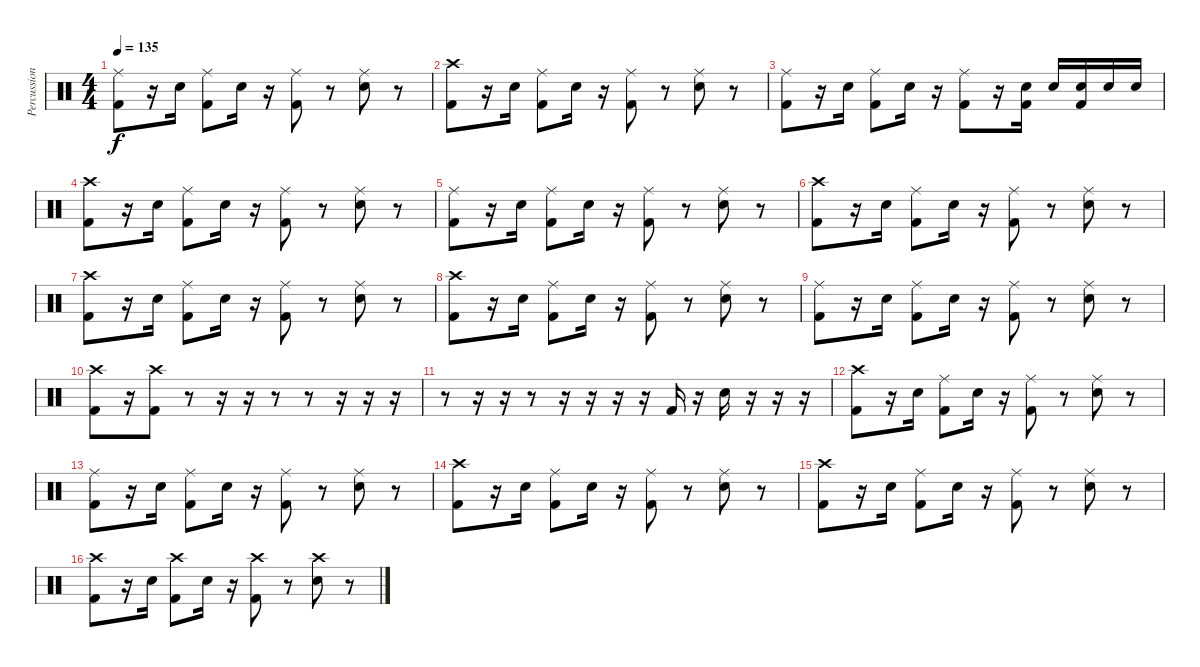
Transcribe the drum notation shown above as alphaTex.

\track ("Percussions" "Percussion") {instrument percussion}
\staff {score}
\articulation defaults
\ts (4 4)
\tempo 135
\clef neutral
\ks c
("Ride (middle)" "Kick (hit) 2").8{dy f} r.16 "Snare (hit) 2".16 ("Ride (middle)" "Kick (hit) 2").8 "Snare (hit) 2".16 r.16 ("Ride (middle)" "Kick (hit) 2").8 r.8 ("Ride (middle)" "Snare (hit) 2").8 r.8 |
("Crash high (hit)" "Kick (hit) 2").8 r.16 "Snare (hit) 2".16 ("Ride (middle)" "Kick (hit) 2").8 "Snare (hit) 2".16 r.16 ("Ride (middle)" "Kick (hit) 2").8 r.8 ("Ride (middle)" "Snare (hit) 2").8 r.8 |
("Ride (middle)" "Kick (hit) 2").8 r.16 "Snare (hit) 2".16 ("Ride (middle)" "Kick (hit) 2").8 "Snare (hit) 2".16 r.16 ("Ride (middle)" "Kick (hit) 2").8 r.16 ("Snare (hit) 2" "Kick (hit) 2").16 "Snare (hit) 2".16 ("Snare (hit) 2" "Kick (hit) 2").16 "Snare (hit) 2".16 "Snare (hit) 2".16 |
("Crash high (hit)" "Kick (hit) 2").8 r.16 "Snare (hit) 2".16 ("Ride (middle)" "Kick (hit) 2").8 "Snare (hit) 2".16 r.16 ("Ride (middle)" "Kick (hit) 2").8 r.8 ("Ride (middle)" "Snare (hit) 2").8 r.8 |
("Ride (middle)" "Kick (hit) 2").8 r.16 "Snare (hit) 2".16 ("Ride (middle)" "Kick (hit) 2").8 "Snare (hit) 2".16 r.16 ("Ride (middle)" "Kick (hit) 2").8 r.8 ("Ride (middle)" "Snare (hit) 2").8 r.8 |
("Crash high (hit)" "Kick (hit) 2").8 r.16 "Snare (hit) 2".16 ("Ride (middle)" "Kick (hit) 2").8 "Snare (hit) 2".16 r.16 ("Ride (middle)" "Kick (hit) 2").8 r.8 ("Ride (middle)" "Snare (hit) 2").8 r.8 |
("Crash high (hit)" "Kick (hit) 2").8 r.16 "Snare (hit) 2".16 ("Ride (middle)" "Kick (hit) 2").8 "Snare (hit) 2".16 r.16 ("Ride (middle)" "Kick (hit) 2").8 r.8 ("Ride (middle)" "Snare (hit) 2").8 r.8 |
("Crash high (hit)" "Kick (hit) 2").8 r.16 "Snare (hit) 2".16 ("Ride (middle)" "Kick (hit) 2").8 "Snare (hit) 2".16 r.16 ("Ride (middle)" "Kick (hit) 2").8 r.8 ("Ride (middle)" "Snare (hit) 2").8 r.8 |
("Ride (middle)" "Kick (hit) 2").8 r.16 "Snare (hit) 2".16 ("Ride (middle)" "Kick (hit) 2").8 "Snare (hit) 2".16 r.16 ("Ride (middle)" "Kick (hit) 2").8 r.8 ("Ride (middle)" "Snare (hit) 2").8 r.8 |
("Crash high (hit)" "Kick (hit) 2").8 r.16 ("Crash high (hit)" "Kick (hit) 2").8 r.8 r.16 r.16 r.8 r.8 r.16 r.16 r.16 |
r.8 r.16 r.16 r.8 r.16 r.16 r.16 r.16 "Kick (hit) 2".16 r.16 "Electric Snare (hit)".16 r.16 r.16 r.16 |
("Crash high (hit)" "Kick (hit) 2").8 r.16 "Snare (hit) 2".16 ("Ride (middle)" "Kick (hit) 2").8 "Snare (hit) 2".16 r.16 ("Ride (middle)" "Kick (hit) 2").8 r.8 ("Ride (middle)" "Snare (hit) 2").8 r.8 |
("Ride (middle)" "Kick (hit) 2").8 r.16 "Snare (hit) 2".16 ("Ride (middle)" "Kick (hit) 2").8 "Snare (hit) 2".16 r.16 ("Ride (middle)" "Kick (hit) 2").8 r.8 ("Ride (middle)" "Snare (hit) 2").8 r.8 |
("Crash high (hit)" "Kick (hit) 2").8 r.16 "Snare (hit) 2".16 ("Ride (middle)" "Kick (hit) 2").8 "Snare (hit) 2".16 r.16 ("Ride (middle)" "Kick (hit) 2").8 r.8 ("Ride (middle)" "Snare (hit) 2").8 r.8 |
("Crash high (hit)" "Kick (hit) 2").8 r.16 "Snare (hit) 2".16 ("Ride (middle)" "Kick (hit) 2").8 "Snare (hit) 2".16 r.16 ("Ride (middle)" "Kick (hit) 2").8 r.8 ("Ride (middle)" "Snare (hit) 2").8 r.8 |
("Crash high (hit)" "Kick (hit) 2").8 r.16 "Snare (hit) 2".16 ("Crash high (hit)" "Kick (hit) 2").8 "Snare (hit) 2".16 r.16 ("Crash high (hit)" "Kick (hit) 2").8 r.8 ("Crash high (hit)" "Snare (hit) 2").8 r.8
